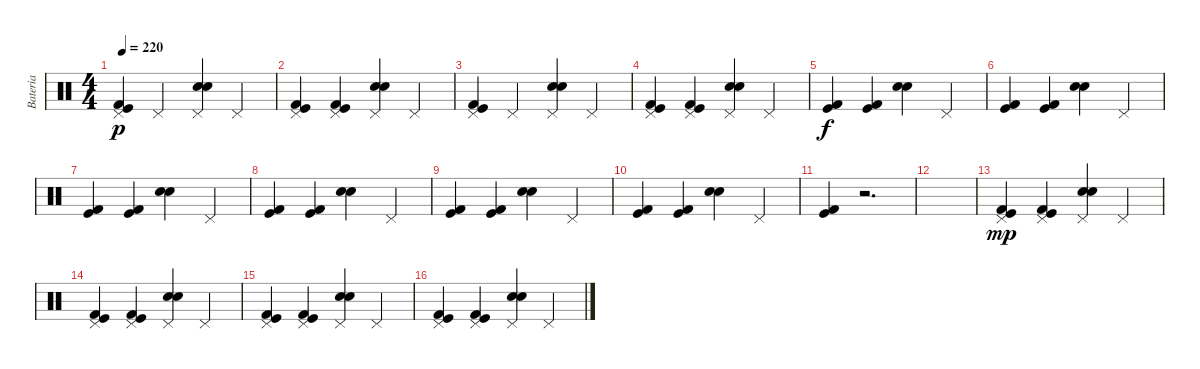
\track ("Bateria" "Bateria") {instrument percussion}
\staff {score}
\articulation defaults
\ts (4 4)
\tempo 220
\clef neutral
\ks c
("Pedal Hi-Hat (hit)" "Kick (hit) 2" "Kick (hit)").4{dy p} "Pedal Hi-Hat (hit)".4 ("Pedal Hi-Hat (hit)" "Electric Snare (hit)" "Snare (hit) 2").4 "Pedal Hi-Hat (hit)".4 |
("Pedal Hi-Hat (hit)" "Kick (hit) 2" "Kick (hit)").4 ("Pedal Hi-Hat (hit)" "Kick (hit) 2" "Kick (hit)").4 ("Pedal Hi-Hat (hit)" "Electric Snare (hit)" "Snare (hit) 2").4 "Pedal Hi-Hat (hit)".4 |
("Pedal Hi-Hat (hit)" "Kick (hit) 2" "Kick (hit)").4 "Pedal Hi-Hat (hit)".4 ("Pedal Hi-Hat (hit)" "Electric Snare (hit)" "Snare (hit) 2").4 "Pedal Hi-Hat (hit)".4 |
("Pedal Hi-Hat (hit)" "Kick (hit) 2" "Kick (hit)").4 ("Pedal Hi-Hat (hit)" "Kick (hit) 2" "Kick (hit)").4 ("Pedal Hi-Hat (hit)" "Electric Snare (hit)" "Snare (hit) 2").4 "Pedal Hi-Hat (hit)".4 |
("Kick (hit) 2" "Kick (hit)").4{dy f} ("Kick (hit) 2" "Kick (hit)").4 ("Snare (hit) 2" "Electric Snare (hit)").4 "Pedal Hi-Hat (hit)".4 |
("Kick (hit) 2" "Kick (hit)").4 ("Kick (hit) 2" "Kick (hit)").4 ("Snare (hit) 2" "Electric Snare (hit)").4 "Pedal Hi-Hat (hit)".4 |
("Kick (hit) 2" "Kick (hit)").4 ("Kick (hit) 2" "Kick (hit)").4 ("Snare (hit) 2" "Electric Snare (hit)").4 "Pedal Hi-Hat (hit)".4 |
("Kick (hit) 2" "Kick (hit)").4 ("Kick (hit) 2" "Kick (hit)").4 ("Snare (hit) 2" "Electric Snare (hit)").4 "Pedal Hi-Hat (hit)".4 |
("Kick (hit) 2" "Kick (hit)").4 ("Kick (hit) 2" "Kick (hit)").4 ("Snare (hit) 2" "Electric Snare (hit)").4 "Pedal Hi-Hat (hit)".4 |
("Kick (hit) 2" "Kick (hit)").4 ("Kick (hit) 2" "Kick (hit)").4 ("Snare (hit) 2" "Electric Snare (hit)").4 "Pedal Hi-Hat (hit)".4 |
("Kick (hit) 2" "Kick (hit)").4 r.2{d} |
|
("Pedal Hi-Hat (hit)" "Kick (hit) 2" "Kick (hit)").4{dy mp} ("Pedal Hi-Hat (hit)" "Kick (hit) 2" "Kick (hit)").4 ("Pedal Hi-Hat (hit)" "Snare (hit) 2" "Electric Snare (hit)").4 "Pedal Hi-Hat (hit)".4 |
("Pedal Hi-Hat (hit)" "Kick (hit) 2" "Kick (hit)").4 ("Pedal Hi-Hat (hit)" "Kick (hit) 2" "Kick (hit)").4 ("Pedal Hi-Hat (hit)" "Snare (hit) 2" "Electric Snare (hit)").4 "Pedal Hi-Hat (hit)".4 |
("Pedal Hi-Hat (hit)" "Kick (hit) 2" "Kick (hit)").4 ("Pedal Hi-Hat (hit)" "Kick (hit) 2" "Kick (hit)").4 ("Pedal Hi-Hat (hit)" "Snare (hit) 2" "Electric Snare (hit)").4 "Pedal Hi-Hat (hit)".4 |
("Pedal Hi-Hat (hit)" "Kick (hit) 2" "Kick (hit)").4 ("Pedal Hi-Hat (hit)" "Kick (hit) 2" "Kick (hit)").4 ("Pedal Hi-Hat (hit)" "Snare (hit) 2" "Electric Snare (hit)").4 "Pedal Hi-Hat (hit)".4
